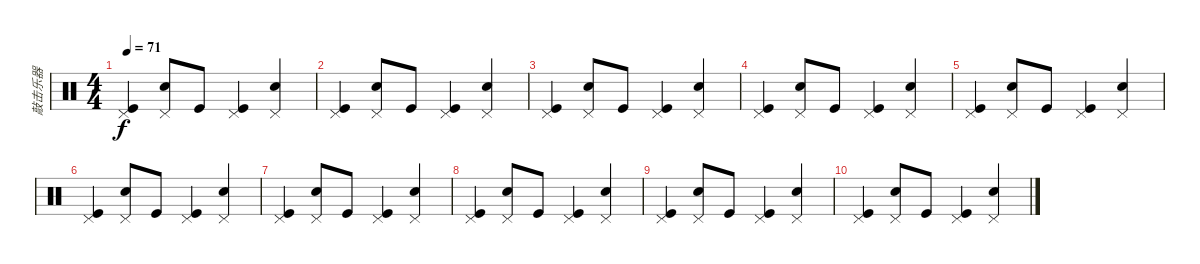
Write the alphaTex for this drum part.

\track ("敲击乐器" "敲击乐器") {instrument percussion}
\staff {score}
\articulation defaults
\ts (4 4)
\tempo 71
\clef neutral
\ks c
("Pedal Hi-Hat (hit)" "Kick (hit)").4{dy f} ("Pedal Hi-Hat (hit)" "Snare (hit) 2").8 "Kick (hit)".8 ("Pedal Hi-Hat (hit)" "Kick (hit)").4 ("Pedal Hi-Hat (hit)" "Snare (hit) 2").4 |
("Pedal Hi-Hat (hit)" "Kick (hit)").4 ("Pedal Hi-Hat (hit)" "Snare (hit) 2").8 "Kick (hit)".8 ("Pedal Hi-Hat (hit)" "Kick (hit)").4 ("Pedal Hi-Hat (hit)" "Snare (hit) 2").4 |
("Pedal Hi-Hat (hit)" "Kick (hit)").4 ("Pedal Hi-Hat (hit)" "Snare (hit) 2").8 "Kick (hit)".8 ("Pedal Hi-Hat (hit)" "Kick (hit)").4 ("Pedal Hi-Hat (hit)" "Snare (hit) 2").4 |
("Pedal Hi-Hat (hit)" "Kick (hit)").4 ("Pedal Hi-Hat (hit)" "Snare (hit) 2").8 "Kick (hit)".8 ("Pedal Hi-Hat (hit)" "Kick (hit)").4 ("Pedal Hi-Hat (hit)" "Snare (hit) 2").4 |
("Pedal Hi-Hat (hit)" "Kick (hit)").4 ("Pedal Hi-Hat (hit)" "Snare (hit) 2").8 "Kick (hit)".8 ("Pedal Hi-Hat (hit)" "Kick (hit)").4 ("Pedal Hi-Hat (hit)" "Snare (hit) 2").4 |
("Pedal Hi-Hat (hit)" "Kick (hit)").4 ("Pedal Hi-Hat (hit)" "Snare (hit) 2").8 "Kick (hit)".8 ("Pedal Hi-Hat (hit)" "Kick (hit)").4 ("Pedal Hi-Hat (hit)" "Snare (hit) 2").4 |
("Pedal Hi-Hat (hit)" "Kick (hit)").4 ("Pedal Hi-Hat (hit)" "Snare (hit) 2").8 "Kick (hit)".8 ("Pedal Hi-Hat (hit)" "Kick (hit)").4 ("Pedal Hi-Hat (hit)" "Snare (hit) 2").4 |
("Pedal Hi-Hat (hit)" "Kick (hit)").4 ("Pedal Hi-Hat (hit)" "Snare (hit) 2").8 "Kick (hit)".8 ("Pedal Hi-Hat (hit)" "Kick (hit)").4 ("Pedal Hi-Hat (hit)" "Snare (hit) 2").4 |
("Pedal Hi-Hat (hit)" "Kick (hit)").4 ("Pedal Hi-Hat (hit)" "Snare (hit) 2").8 "Kick (hit)".8 ("Pedal Hi-Hat (hit)" "Kick (hit)").4 ("Pedal Hi-Hat (hit)" "Snare (hit) 2").4 |
("Pedal Hi-Hat (hit)" "Kick (hit)").4 ("Pedal Hi-Hat (hit)" "Snare (hit) 2").8 "Kick (hit)".8 ("Pedal Hi-Hat (hit)" "Kick (hit)").4 ("Pedal Hi-Hat (hit)" "Snare (hit) 2").4
